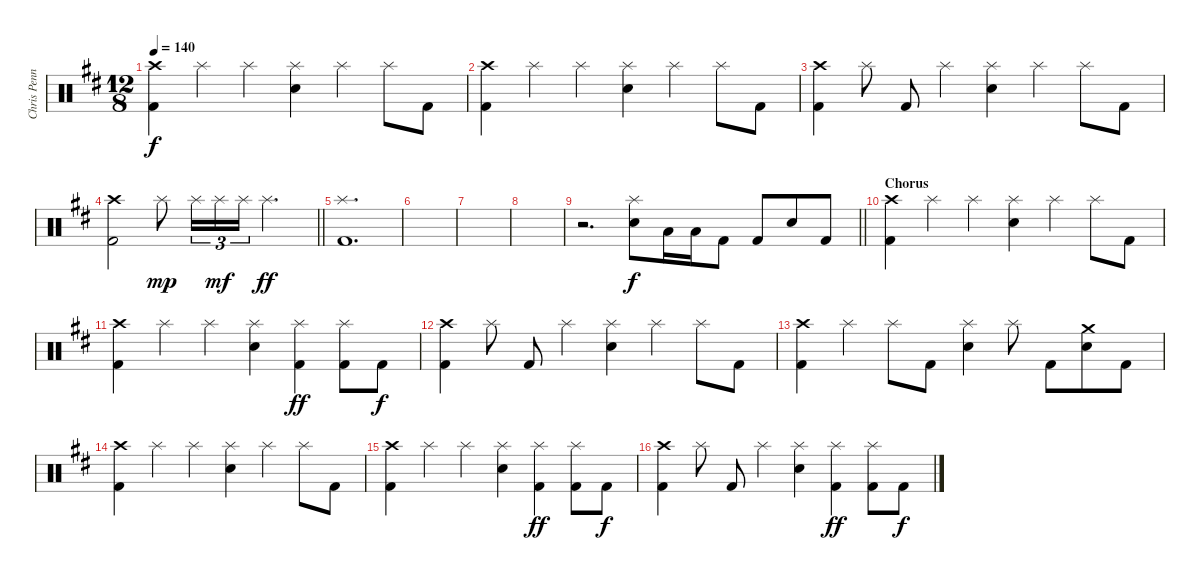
\track ("Chris Pennie/Taylor Hawkins - Drums" "Chris Penn") {instrument percussion}
\staff {score}
\articulation defaults
\ts (12 8)
\tempo 140
\clef neutral
\ks bminor
("Crash high (hit)" "Kick (hit) 2").4{dy f} "Splash (hit)".4 "Splash (hit)".4 ("Splash (hit)" "Electric Snare (hit)").4 "Splash (hit)".4 "Splash (hit)".8 "Kick (hit) 2".8 |
("Crash high (hit)" "Kick (hit) 2").4 "Splash (hit)".4 "Splash (hit)".4 ("Splash (hit)" "Electric Snare (hit)").4 "Splash (hit)".4 "Splash (hit)".8 "Kick (hit) 2".8 |
("Crash high (hit)" "Kick (hit) 2").4 "Splash (hit)".8 "Kick (hit) 2".8 "Splash (hit)".4 ("Splash (hit)" "Electric Snare (hit)").4 "Splash (hit)".4 "Splash (hit)".8 "Kick (hit) 2".8 |
\barLineRight lightlight
("Crash high (hit)" "Kick (hit) 2").2 "Splash (hit)".8{dy mp} "Splash (hit)".16{tu (3 2)} "Splash (hit)".16{tu (3 2) dy mf} "Splash (hit)".16{tu (3 2)} "Splash (hit)".2{d dy ff} |
("Splash (hit)" "Kick (hit) 2").1{d} |
|
|
|
\barLineRight lightlight
r.2{d} ("Splash (hit)" "Electric Snare (hit)").8{dy f} "Low Tom (hit)".16 "Low Floor Tom (hit)".16 "Kick (hit) 2".8 "Kick (hit) 2".8 "Electric Snare (hit)".8 "Kick (hit) 2".8 |
\section ("" "Chorus")
("Crash high (hit)" "Kick (hit) 2").4 "Splash (hit)".4 "Splash (hit)".4 ("Splash (hit)" "Electric Snare (hit)").4 "Splash (hit)".4 "Splash (hit)".8 "Kick (hit) 2".8 |
("Crash high (hit)" "Kick (hit) 2").4 "Splash (hit)".4 "Splash (hit)".4 ("Splash (hit)" "Electric Snare (hit)").4 ("Splash (hit)" "Kick (hit) 2").4{dy ff} ("Splash (hit)" "Kick (hit) 2").8 "Kick (hit) 2".8{dy f} |
("Crash high (hit)" "Kick (hit) 2").4 "Splash (hit)".8 "Kick (hit) 2".8 "Splash (hit)".4 ("Splash (hit)" "Electric Snare (hit)").4 "Splash (hit)".4 "Splash (hit)".8 "Kick (hit) 2".8 |
("Crash high (hit)" "Kick (hit) 2").4 "Splash (hit)".4 "Splash (hit)".8 "Kick (hit) 2".8 ("Splash (hit)" "Electric Snare (hit)").4 "Splash (hit)".8 "Kick (hit) 2".8 ("Crash medium (hit)" "Electric Snare (hit)").8 "Kick (hit) 2".8 |
("Crash high (hit)" "Kick (hit) 2").4 "Splash (hit)".4 "Splash (hit)".4 ("Splash (hit)" "Electric Snare (hit)").4 "Splash (hit)".4 "Splash (hit)".8 "Kick (hit) 2".8 |
("Crash high (hit)" "Kick (hit) 2").4 "Splash (hit)".4 "Splash (hit)".4 ("Splash (hit)" "Electric Snare (hit)").4 ("Splash (hit)" "Kick (hit) 2").4{dy ff} ("Splash (hit)" "Kick (hit) 2").8 "Kick (hit) 2".8{dy f} |
("Crash high (hit)" "Kick (hit) 2").4 "Splash (hit)".8 "Kick (hit) 2".8 "Splash (hit)".4 ("Splash (hit)" "Electric Snare (hit)").4 ("Splash (hit)" "Kick (hit) 2").4{dy ff} ("Splash (hit)" "Kick (hit) 2").8 "Kick (hit) 2".8{dy f}
